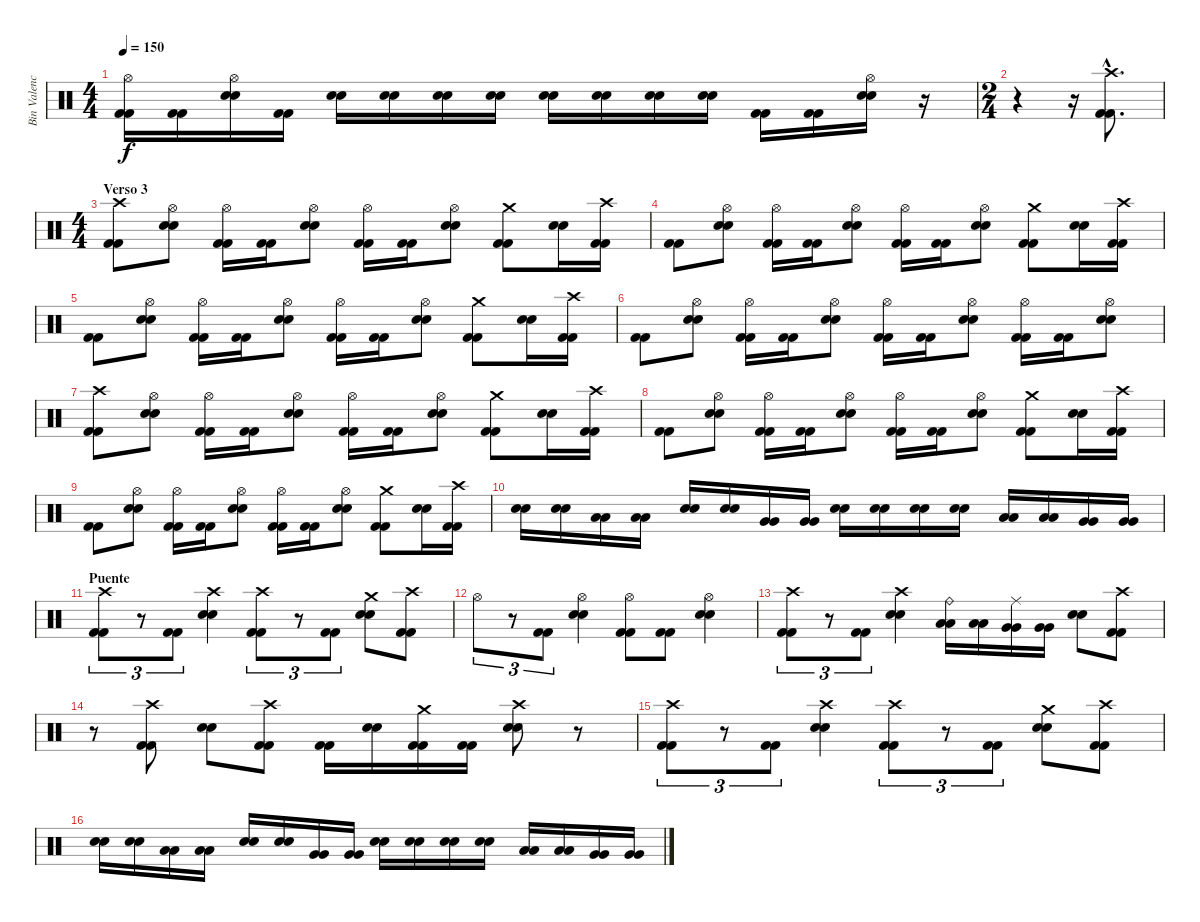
\track ("Bin Valencia (bateria)" "Bin Valenc") {instrument percussion}
\staff {score}
\articulation defaults
\ts (4 4)
\tempo 150
\clef neutral
\ks c
("Hi-Hat (open)" "Kick (hit) 2" "Kick (hit) 2").16{dy f} ("Kick (hit) 2" "Kick (hit) 2").16 ("Hi-Hat (open)" "Snare (hit) 2" "Snare (hit) 2").16 ("Kick (hit) 2" "Kick (hit) 2").16 ("Snare (hit) 2" "Snare (hit) 2").16 ("Snare (hit) 2" "Snare (hit) 2").16 ("Snare (hit) 2" "Snare (hit) 2").16 ("Snare (hit) 2" "Snare (hit) 2").16 ("Snare (hit) 2" "Snare (hit) 2").16 ("Snare (hit) 2" "Snare (hit) 2").16 ("Snare (hit) 2" "Snare (hit) 2").16 ("Snare (hit) 2" "Snare (hit) 2").16 ("Kick (hit) 2" "Kick (hit) 2").16 ("Kick (hit) 2" "Kick (hit) 2").16 ("Hi-Hat (open)" "Snare (hit) 2" "Snare (hit) 2").16 r.16 |
\ts (2 4)
r.4 r.16 ("Crash high (hit)"{hac} "Kick (hit) 2"{hac} "Kick (hit) 2"{hac}).8{d} |
\ts (4 4)
\section ("" "Verso 3")
("Crash high (hit)" "Kick (hit) 2" "Kick (hit) 2").8 ("Hi-Hat (open)" "Snare (hit) 2" "Snare (hit) 2").8 ("Hi-Hat (open)" "Kick (hit) 2" "Kick (hit) 2").16 ("Kick (hit) 2" "Kick (hit) 2").16 ("Hi-Hat (open)" "Snare (hit) 2" "Snare (hit) 2").8 ("Hi-Hat (open)" "Kick (hit) 2" "Kick (hit) 2").16 ("Kick (hit) 2" "Kick (hit) 2").16 ("Hi-Hat (open)" "Snare (hit) 2" "Snare (hit) 2").8 ("Crash medium (hit)" "Kick (hit) 2" "Kick (hit) 2").8 ("Snare (hit) 2" "Snare (hit) 2").16 ("Crash high (hit)" "Kick (hit) 2" "Kick (hit) 2").16 |
("Kick (hit) 2" "Kick (hit) 2").8 ("Hi-Hat (open)" "Snare (hit) 2" "Snare (hit) 2").8 ("Hi-Hat (open)" "Kick (hit) 2" "Kick (hit) 2").16 ("Kick (hit) 2" "Kick (hit) 2").16 ("Hi-Hat (open)" "Snare (hit) 2" "Snare (hit) 2").8 ("Hi-Hat (open)" "Kick (hit) 2" "Kick (hit) 2").16 ("Kick (hit) 2" "Kick (hit) 2").16 ("Hi-Hat (open)" "Snare (hit) 2" "Snare (hit) 2").8 ("Crash medium (hit)" "Kick (hit) 2" "Kick (hit) 2").8 ("Snare (hit) 2" "Snare (hit) 2").16 ("Crash high (hit)" "Kick (hit) 2" "Kick (hit) 2").16 |
("Kick (hit) 2" "Kick (hit) 2").8 ("Hi-Hat (open)" "Snare (hit) 2" "Snare (hit) 2").8 ("Hi-Hat (open)" "Kick (hit) 2" "Kick (hit) 2").16 ("Kick (hit) 2" "Kick (hit) 2").16 ("Hi-Hat (open)" "Snare (hit) 2" "Snare (hit) 2").8 ("Hi-Hat (open)" "Kick (hit) 2" "Kick (hit) 2").16 ("Kick (hit) 2" "Kick (hit) 2").16 ("Hi-Hat (open)" "Snare (hit) 2" "Snare (hit) 2").8 ("Crash medium (hit)" "Kick (hit) 2" "Kick (hit) 2").8 ("Snare (hit) 2" "Snare (hit) 2").16 ("Crash high (hit)" "Kick (hit) 2" "Kick (hit) 2").16 |
("Kick (hit) 2" "Kick (hit) 2").8 ("Hi-Hat (open)" "Snare (hit) 2" "Snare (hit) 2").8 ("Hi-Hat (open)" "Kick (hit) 2" "Kick (hit) 2").16 ("Kick (hit) 2" "Kick (hit) 2").16 ("Hi-Hat (open)" "Snare (hit) 2" "Snare (hit) 2").8 ("Hi-Hat (open)" "Kick (hit) 2" "Kick (hit) 2").16 ("Kick (hit) 2" "Kick (hit) 2").16 ("Hi-Hat (open)" "Snare (hit) 2" "Snare (hit) 2").8 ("Hi-Hat (open)" "Kick (hit) 2" "Kick (hit) 2").16 ("Kick (hit) 2" "Kick (hit) 2").16 ("Hi-Hat (open)" "Snare (hit) 2" "Snare (hit) 2").8 |
("Crash high (hit)" "Kick (hit) 2" "Kick (hit) 2").8 ("Hi-Hat (open)" "Snare (hit) 2" "Snare (hit) 2").8 ("Hi-Hat (open)" "Kick (hit) 2" "Kick (hit) 2").16 ("Kick (hit) 2" "Kick (hit) 2").16 ("Hi-Hat (open)" "Snare (hit) 2" "Snare (hit) 2").8 ("Hi-Hat (open)" "Kick (hit) 2" "Kick (hit) 2").16 ("Kick (hit) 2" "Kick (hit) 2").16 ("Hi-Hat (open)" "Snare (hit) 2" "Snare (hit) 2").8 ("Crash medium (hit)" "Kick (hit) 2" "Kick (hit) 2").8 ("Snare (hit) 2" "Snare (hit) 2").16 ("Crash high (hit)" "Kick (hit) 2" "Kick (hit) 2").16 |
("Kick (hit) 2" "Kick (hit) 2").8 ("Hi-Hat (open)" "Snare (hit) 2" "Snare (hit) 2").8 ("Hi-Hat (open)" "Kick (hit) 2" "Kick (hit) 2").16 ("Kick (hit) 2" "Kick (hit) 2").16 ("Hi-Hat (open)" "Snare (hit) 2" "Snare (hit) 2").8 ("Hi-Hat (open)" "Kick (hit) 2" "Kick (hit) 2").16 ("Kick (hit) 2" "Kick (hit) 2").16 ("Hi-Hat (open)" "Snare (hit) 2" "Snare (hit) 2").8 ("Crash medium (hit)" "Kick (hit) 2" "Kick (hit) 2").8 ("Snare (hit) 2" "Snare (hit) 2").16 ("Crash high (hit)" "Kick (hit) 2" "Kick (hit) 2").16 |
("Kick (hit) 2" "Kick (hit) 2").8 ("Hi-Hat (open)" "Snare (hit) 2" "Snare (hit) 2").8 ("Hi-Hat (open)" "Kick (hit) 2" "Kick (hit) 2").16 ("Kick (hit) 2" "Kick (hit) 2").16 ("Hi-Hat (open)" "Snare (hit) 2" "Snare (hit) 2").8 ("Hi-Hat (open)" "Kick (hit) 2" "Kick (hit) 2").16 ("Kick (hit) 2" "Kick (hit) 2").16 ("Hi-Hat (open)" "Snare (hit) 2" "Snare (hit) 2").8 ("Crash medium (hit)" "Kick (hit) 2" "Kick (hit) 2").8 ("Snare (hit) 2" "Snare (hit) 2").16 ("Crash high (hit)" "Kick (hit) 2" "Kick (hit) 2").16 |
("Snare (hit) 2" "Snare (hit) 2").16 ("Snare (hit) 2" "Snare (hit) 2").16 ("Low Tom (hit)" "Low Tom (hit)").16 ("Low Tom (hit)" "Low Tom (hit)").16 ("Snare (hit) 2" "Snare (hit) 2").16 ("Snare (hit) 2" "Snare (hit) 2").16 ("Very Low Tom (hit)" "Very Low Tom (hit)").16 ("Very Low Tom (hit)" "Very Low Tom (hit)").16 ("Snare (hit) 2" "Snare (hit) 2").16 ("Snare (hit) 2" "Snare (hit) 2").16 ("Snare (hit) 2" "Snare (hit) 2").16 ("Snare (hit) 2" "Snare (hit) 2").16 ("Low Tom (hit)" "Low Tom (hit)").16 ("Low Tom (hit)" "Low Tom (hit)").16 ("Very Low Tom (hit)" "Very Low Tom (hit)").16 ("Very Low Tom (hit)" "Very Low Tom (hit)").16 |
\section ("" "Puente")
("Crash high (hit)" "Kick (hit) 2" "Kick (hit) 2").8{tu (3 2)} r.8{tu (3 2)} ("Kick (hit) 2" "Kick (hit) 2").8{tu (3 2)} ("Crash high (hit)" "Snare (hit) 2" "Snare (hit) 2").4 ("Crash high (hit)" "Kick (hit) 2" "Kick (hit) 2").8{tu (3 2)} r.8{tu (3 2)} ("Kick (hit) 2" "Kick (hit) 2").8{tu (3 2)} ("Crash medium (hit)" "Snare (hit) 2" "Snare (hit) 2").8 ("Crash high (hit)" "Kick (hit) 2" "Kick (hit) 2").8 |
"Hi-Hat (open)".8{tu (3 2)} r.8{tu (3 2)} ("Kick (hit) 2" "Kick (hit) 2").8{tu (3 2)} ("Hi-Hat (open)" "Snare (hit) 2" "Snare (hit) 2").4 ("Hi-Hat (open)" "Kick (hit) 2" "Kick (hit) 2").8 ("Kick (hit) 2" "Kick (hit) 2").8 ("Hi-Hat (open)" "Snare (hit) 2" "Snare (hit) 2").4 |
("Crash high (hit)" "Kick (hit) 2" "Kick (hit) 2").8{tu (3 2)} r.8{tu (3 2)} ("Kick (hit) 2" "Kick (hit) 2").8{tu (3 2)} ("Crash high (hit)" "Snare (hit) 2" "Snare (hit) 2").4 ("Ride (bell)" "Low Tom (hit)" "Low Tom (hit)").16 ("Low Tom (hit)" "Low Tom (hit)").16 ("Ride (middle)" "Very Low Tom (hit)" "Very Low Tom (hit)").16 ("Very Low Tom (hit)" "Very Low Tom (hit)").16 ("Electric Snare (hit)" "Electric Snare (hit)").8 ("Crash high (hit)" "Kick (hit) 2" "Kick (hit) 2").8 |
r.8 ("Crash high (hit)" "Kick (hit) 2" "Kick (hit) 2").8 ("Snare (hit) 2" "Snare (hit) 2").8 ("Crash high (hit)" "Kick (hit) 2" "Kick (hit) 2").8 ("Kick (hit) 2" "Kick (hit) 2").16 ("Snare (hit) 2" "Snare (hit) 2").16 ("Crash medium (hit)" "Kick (hit) 2" "Kick (hit) 2").16 ("Kick (hit) 2" "Kick (hit) 2").16 ("Crash high (hit)" "Snare (hit) 2" "Snare (hit) 2").8 r.8 |
("Crash high (hit)" "Kick (hit) 2" "Kick (hit) 2").8{tu (3 2)} r.8{tu (3 2)} ("Kick (hit) 2" "Kick (hit) 2").8{tu (3 2)} ("Crash high (hit)" "Snare (hit) 2" "Snare (hit) 2").4 ("Crash high (hit)" "Kick (hit) 2" "Kick (hit) 2").8{tu (3 2)} r.8{tu (3 2)} ("Kick (hit) 2" "Kick (hit) 2").8{tu (3 2)} ("Crash medium (hit)" "Snare (hit) 2" "Snare (hit) 2").8 ("Crash high (hit)" "Kick (hit) 2" "Kick (hit) 2").8 |
("Snare (hit) 2" "Snare (hit) 2").16 ("Snare (hit) 2" "Snare (hit) 2").16 ("Low Tom (hit)" "Low Tom (hit)").16 ("Low Tom (hit)" "Low Tom (hit)").16 ("Snare (hit) 2" "Snare (hit) 2").16 ("Snare (hit) 2" "Snare (hit) 2").16 ("Very Low Tom (hit)" "Very Low Tom (hit)").16 ("Very Low Tom (hit)" "Very Low Tom (hit)").16 ("Snare (hit) 2" "Snare (hit) 2").16 ("Snare (hit) 2" "Snare (hit) 2").16 ("Snare (hit) 2" "Snare (hit) 2").16 ("Snare (hit) 2" "Snare (hit) 2").16 ("Low Tom (hit)" "Low Tom (hit)").16 ("Low Tom (hit)" "Low Tom (hit)").16 ("Very Low Tom (hit)" "Very Low Tom (hit)").16 ("Very Low Tom (hit)" "Very Low Tom (hit)").16
